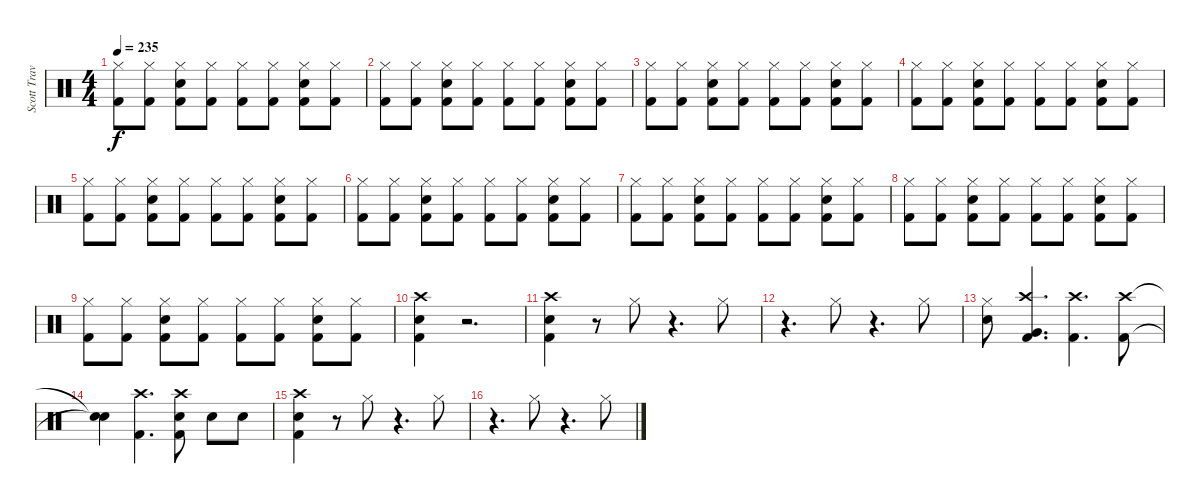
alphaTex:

\track ("Scott Travis" "Scott Trav") {instrument percussion}
\staff {score}
\articulation defaults
\ts (4 4)
\tempo 235
\clef neutral
\ks c
("Kick (hit) 2" "Hi-Hat (closed)").8{dy f} ("Kick (hit) 2" "Hi-Hat (closed)").8 ("Kick (hit) 2" "Snare (hit) 2" "Hi-Hat (closed)").8 ("Kick (hit) 2" "Hi-Hat (closed)").8 ("Kick (hit) 2" "Hi-Hat (closed)").8 ("Kick (hit) 2" "Hi-Hat (closed)").8 ("Kick (hit) 2" "Hi-Hat (closed)" "Snare (hit) 2").8 ("Kick (hit) 2" "Hi-Hat (closed)").8 |
("Kick (hit) 2" "Hi-Hat (closed)").8 ("Kick (hit) 2" "Hi-Hat (closed)").8 ("Kick (hit) 2" "Snare (hit) 2" "Hi-Hat (closed)").8 ("Kick (hit) 2" "Hi-Hat (closed)").8 ("Kick (hit) 2" "Hi-Hat (closed)").8 ("Kick (hit) 2" "Hi-Hat (closed)").8 ("Kick (hit) 2" "Hi-Hat (closed)" "Snare (hit) 2").8 ("Kick (hit) 2" "Hi-Hat (closed)").8 |
("Kick (hit) 2" "Hi-Hat (closed)").8 ("Kick (hit) 2" "Hi-Hat (closed)").8 ("Kick (hit) 2" "Snare (hit) 2" "Hi-Hat (closed)").8 ("Kick (hit) 2" "Hi-Hat (closed)").8 ("Kick (hit) 2" "Hi-Hat (closed)").8 ("Kick (hit) 2" "Hi-Hat (closed)").8 ("Kick (hit) 2" "Hi-Hat (closed)" "Snare (hit) 2").8 ("Kick (hit) 2" "Hi-Hat (closed)").8 |
("Kick (hit) 2" "Hi-Hat (closed)").8 ("Kick (hit) 2" "Hi-Hat (closed)").8 ("Kick (hit) 2" "Snare (hit) 2" "Hi-Hat (closed)").8 ("Kick (hit) 2" "Hi-Hat (closed)").8 ("Kick (hit) 2" "Hi-Hat (closed)").8 ("Kick (hit) 2" "Hi-Hat (closed)").8 ("Kick (hit) 2" "Hi-Hat (closed)" "Snare (hit) 2").8 ("Kick (hit) 2" "Hi-Hat (closed)").8 |
("Kick (hit) 2" "Hi-Hat (closed)").8 ("Kick (hit) 2" "Hi-Hat (closed)").8 ("Kick (hit) 2" "Snare (hit) 2" "Hi-Hat (closed)").8 ("Kick (hit) 2" "Hi-Hat (closed)").8 ("Kick (hit) 2" "Hi-Hat (closed)").8 ("Kick (hit) 2" "Hi-Hat (closed)").8 ("Kick (hit) 2" "Hi-Hat (closed)" "Snare (hit) 2").8 ("Kick (hit) 2" "Hi-Hat (closed)").8 |
("Kick (hit) 2" "Hi-Hat (closed)").8 ("Kick (hit) 2" "Hi-Hat (closed)").8 ("Kick (hit) 2" "Snare (hit) 2" "Hi-Hat (closed)").8 ("Kick (hit) 2" "Hi-Hat (closed)").8 ("Kick (hit) 2" "Hi-Hat (closed)").8 ("Kick (hit) 2" "Hi-Hat (closed)").8 ("Kick (hit) 2" "Hi-Hat (closed)" "Snare (hit) 2").8 ("Kick (hit) 2" "Hi-Hat (closed)").8 |
("Kick (hit) 2" "Hi-Hat (closed)").8 ("Kick (hit) 2" "Hi-Hat (closed)").8 ("Kick (hit) 2" "Snare (hit) 2" "Hi-Hat (closed)").8 ("Kick (hit) 2" "Hi-Hat (closed)").8 ("Kick (hit) 2" "Hi-Hat (closed)").8 ("Kick (hit) 2" "Hi-Hat (closed)").8 ("Kick (hit) 2" "Hi-Hat (closed)" "Snare (hit) 2").8 ("Kick (hit) 2" "Hi-Hat (closed)").8 |
("Kick (hit) 2" "Hi-Hat (closed)").8 ("Kick (hit) 2" "Hi-Hat (closed)").8 ("Kick (hit) 2" "Snare (hit) 2" "Hi-Hat (closed)").8 ("Kick (hit) 2" "Hi-Hat (closed)").8 ("Kick (hit) 2" "Hi-Hat (closed)").8 ("Kick (hit) 2" "Hi-Hat (closed)").8 ("Kick (hit) 2" "Hi-Hat (closed)" "Snare (hit) 2").8 ("Kick (hit) 2" "Hi-Hat (closed)").8 |
("Kick (hit) 2" "Hi-Hat (closed)").8 ("Kick (hit) 2" "Hi-Hat (closed)").8 ("Kick (hit) 2" "Snare (hit) 2" "Hi-Hat (closed)").8 ("Kick (hit) 2" "Hi-Hat (closed)").8 ("Kick (hit) 2" "Hi-Hat (closed)").8 ("Kick (hit) 2" "Hi-Hat (closed)").8 ("Kick (hit) 2" "Hi-Hat (closed)" "Snare (hit) 2").8 ("Kick (hit) 2" "Hi-Hat (closed)").8 |
("Kick (hit) 2" "Snare (hit) 2" "Crash high (hit)").4 r.2{d} |
("Crash high (hit)" "Kick (hit) 2" "Snare (hit) 2").4 r.8 "Hi-Hat (closed)".8 r.4{d} "Hi-Hat (closed)".8 |
r.4{d} "Hi-Hat (closed)".8 r.4{d} "Hi-Hat (closed)".8 |
("Hi-Hat (closed)" "Snare (hit) 2").8 ("Kick (hit) 2" "Crash high (hit)" "Very Low Tom (hit)").4{d} ("Kick (hit) 2" "Crash high (hit)").4{d} ("Kick (hit) 2" "Crash high (hit)").8 |
("Snare (hit)"{t} "Snare (hit)"{t}).4 ("Kick (hit) 2" "Crash high (hit)").4{d} ("Kick (hit) 2" "Crash high (hit)" "Snare (hit) 2").8 "Snare (hit) 2".8 "Snare (hit) 2".8 |
("Crash high (hit)" "Kick (hit) 2" "Snare (hit) 2").4 r.8 "Hi-Hat (closed)".8 r.4{d} "Hi-Hat (closed)".8 |
r.4{d} "Hi-Hat (closed)".8 r.4{d} "Hi-Hat (closed)".8
